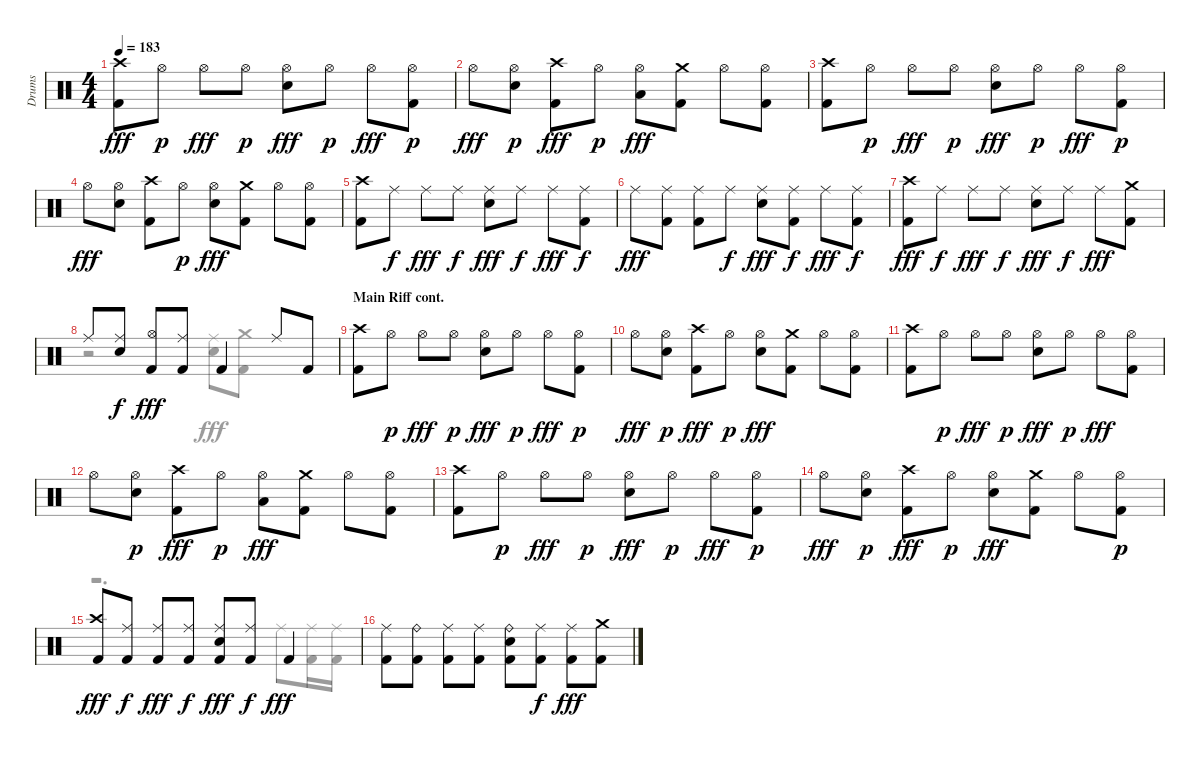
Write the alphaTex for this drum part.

\track ("Drums" "Drums") {instrument percussion}
\staff {score}
\articulation defaults
\voice
\ts (4 4)
\tempo 183
\clef neutral
\ks aminor
("Crash high (hit)" "Kick (hit) 2").8{dy fff} "Hi-Hat (open)".8{dy p} "Hi-Hat (open)".8{dy fff} "Hi-Hat (open)".8{dy p} ("Hi-Hat (open)" "Snare (hit) 2").8{dy fff} "Hi-Hat (open)".8{dy p} "Hi-Hat (open)".8{dy fff} ("Kick (hit) 2" "Hi-Hat (open)").8{dy p} |
"Hi-Hat (open)".8{dy fff} ("Snare (hit) 2" "Hi-Hat (open)").8{dy p} ("Kick (hit) 2" "Crash high (hit)").8{dy fff} "Hi-Hat (open)".8{dy p} ("Hi-Hat (open)" "Low Floor Tom (hit)").8{dy fff} ("Kick (hit) 2" "Crash medium (hit)").8 "Hi-Hat (open)".8 ("Kick (hit) 2" "Hi-Hat (open)").8 |
("Crash high (hit)" "Kick (hit) 2").8 "Hi-Hat (open)".8{dy p} "Hi-Hat (open)".8{dy fff} "Hi-Hat (open)".8{dy p} ("Snare (hit) 2" "Hi-Hat (open)").8{dy fff} "Hi-Hat (open)".8{dy p} "Hi-Hat (open)".8{dy fff} ("Hi-Hat (open)" "Kick (hit) 2").8{dy p} |
"Hi-Hat (open)".8{dy fff} ("Snare (hit) 2" "Hi-Hat (open)").8 ("Kick (hit) 2" "Crash high (hit)").8 "Hi-Hat (open)".8{dy p} ("Hi-Hat (open)" "Snare (hit) 2").8{dy fff} ("Kick (hit) 2" "Crash medium (hit)").8 "Hi-Hat (open)".8 ("Hi-Hat (open)" "Kick (hit) 2").8 |
("Kick (hit) 2" "Crash high (hit)").8 "Ride (middle)".8{dy f} "Ride (middle)".8{dy fff} "Ride (middle)".8{dy f} ("Ride (middle)" "Snare (hit) 2").8{dy fff} "Ride (middle)".8{dy f} "Ride (middle)".8{dy fff} ("Kick (hit) 2" "Ride (middle)").8{dy f} |
"Ride (middle)".8{dy fff} ("Ride (middle)" "Kick (hit) 2").8 ("Ride (middle)" "Kick (hit) 2").8 "Ride (middle)".8{dy f} ("Ride (middle)" "Snare (hit) 2").8{dy fff} ("Kick (hit) 2" "Ride (middle)").8{dy f} "Ride (middle)".8{dy fff} ("Ride (middle)" "Kick (hit) 2").8{dy f} |
("Kick (hit) 2" "Crash high (hit)").8{dy fff} "Ride (middle)".8{dy f} "Ride (middle)".8{dy fff} "Ride (middle)".8{dy f} ("Ride (middle)" "Snare (hit) 2").8{dy fff} "Ride (middle)".8{dy f} "Ride (middle)".8{dy fff} ("Crash medium (hit)" "Kick (hit) 2").8 |
"Ride (middle)".8 ("Ride (middle)" "Snare (hit) 2").8{dy f} ("Kick (hit) 2" "Hi-Hat (open)").8{dy fff} ("Kick (hit) 2" "Ride (middle)").8 "Kick (hit) 2".4 "Ride (middle)".8 "Kick (hit) 2".8 |
\section ("" "Main Riff cont.")
("Crash high (hit)" "Kick (hit) 2").8 "Hi-Hat (open)".8{dy p} "Hi-Hat (open)".8{dy fff} "Hi-Hat (open)".8{dy p} ("Hi-Hat (open)" "Snare (hit) 2").8{dy fff} "Hi-Hat (open)".8{dy p} "Hi-Hat (open)".8{dy fff} ("Hi-Hat (open)" "Kick (hit) 2").8{dy p} |
"Hi-Hat (open)".8{dy fff} ("Hi-Hat (open)" "Snare (hit) 2").8{dy p} ("Kick (hit) 2" "Crash high (hit)").8{dy fff} "Hi-Hat (open)".8{dy p} ("Hi-Hat (open)" "Snare (hit) 2").8{dy fff} ("Crash medium (hit)" "Kick (hit) 2").8 "Hi-Hat (open)".8 ("Hi-Hat (open)" "Kick (hit) 2").8 |
("Kick (hit) 2" "Crash high (hit)").8 "Hi-Hat (open)".8{dy p} "Hi-Hat (open)".8{dy fff} "Hi-Hat (open)".8{dy p} ("Hi-Hat (open)" "Snare (hit) 2").8{dy fff} "Hi-Hat (open)".8{dy p} "Hi-Hat (open)".8{dy fff} ("Hi-Hat (open)" "Kick (hit) 2").8 |
"Hi-Hat (open)".8 ("Snare (hit) 2" "Hi-Hat (open)").8{dy p} ("Crash high (hit)" "Kick (hit) 2").8{dy fff} "Hi-Hat (open)".8{dy p} ("Low Floor Tom (hit)" "Hi-Hat (open)").8{dy fff} ("Crash medium (hit)" "Kick (hit) 2").8 "Hi-Hat (open)".8 ("Hi-Hat (open)" "Kick (hit) 2").8 |
("Crash high (hit)" "Kick (hit) 2").8 "Hi-Hat (open)".8{dy p} "Hi-Hat (open)".8{dy fff} "Hi-Hat (open)".8{dy p} ("Snare (hit) 2" "Hi-Hat (open)").8{dy fff} "Hi-Hat (open)".8{dy p} "Hi-Hat (open)".8{dy fff} ("Kick (hit) 2" "Hi-Hat (open)").8{dy p} |
"Hi-Hat (open)".8{dy fff} ("Hi-Hat (open)" "Snare (hit) 2").8{dy p} ("Kick (hit) 2" "Crash high (hit)").8{dy fff} "Hi-Hat (open)".8{dy p} ("Hi-Hat (open)" "Snare (hit) 2").8{dy fff} ("Crash medium (hit)" "Kick (hit) 2").8 "Hi-Hat (open)".8 ("Kick (hit) 2" "Hi-Hat (open)").8{dy p} |
("Crash high (hit)" "Kick (hit) 2").8{dy fff} ("Ride (middle)" "Kick (hit) 2").8{dy f} ("Kick (hit) 2" "Ride (middle)").8{dy fff} ("Ride (middle)" "Kick (hit) 2").8{dy f} ("Snare (hit) 2" "Kick (hit) 2" "Ride (middle)").8{dy fff} ("Kick (hit) 2" "Ride (middle)").8{dy f} "Kick (hit) 2".4{dy fff} |
("Kick (hit) 2" "Ride (middle)").8 ("Kick (hit) 2" "Ride (bell)").8 ("Kick (hit) 2" "Ride (middle)").8 ("Kick (hit) 2" "Ride (middle)").8 ("Kick (hit) 2" "Snare (hit) 2" "Ride (bell)").8 ("Kick (hit) 2" "Ride (middle)").8{dy f} ("Kick (hit) 2" "Ride (middle)").8{dy fff} ("Crash medium (hit)" "Kick (hit) 2").8
\voice
\clef neutral
\ottava regular
\simile none
\ks aminor
|
|
|
|
|
|
|
r.2 ("Snare (hit) 2" "Ride (middle)").8 ("Crash medium (hit)" "Kick (hit) 2").8 |
|
|
|
|
|
|
r.2{d} "Ride (middle)".8 ("Kick (hit) 2" "Ride (middle)").16 ("Kick (hit) 2" "Ride (middle)").16 |
